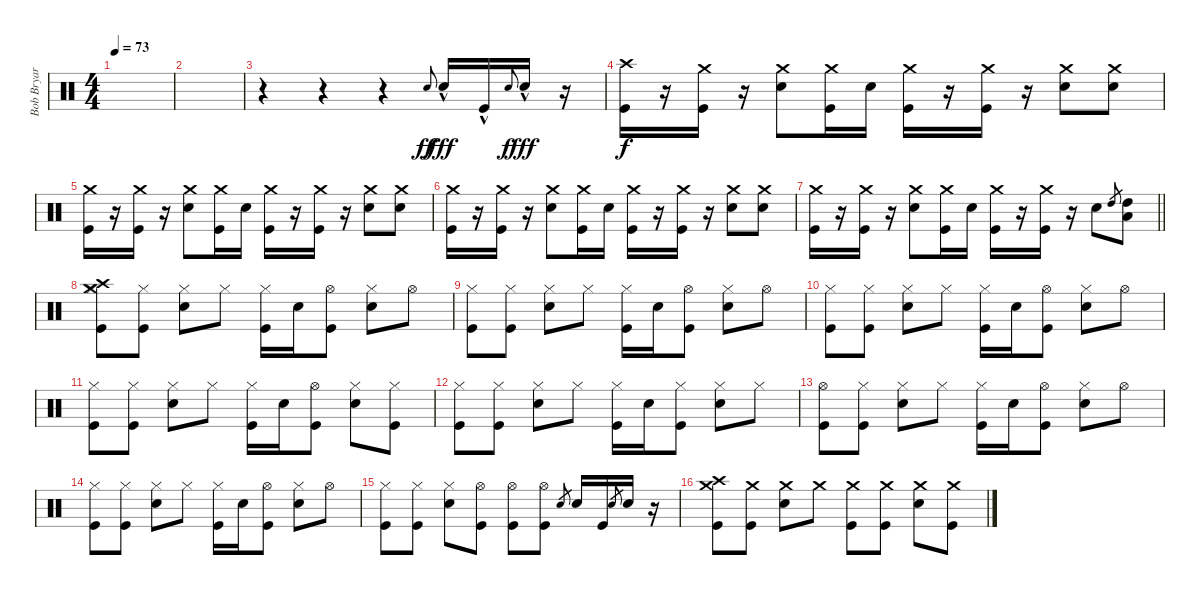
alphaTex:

\track ("Bob Bryar [Drums]" "Bob Bryar ") {instrument percussion}
\staff {score}
\articulation defaults
\ts (4 4)
\tempo 73
\clef neutral
\ks c
|
|
r.4 r.4 r.4 "Snare (hit) 2".8{gr onbeat dy ff} "Snare (hit) 2"{hac}.16{dy fff} "Kick (hit)"{hac}.16 "Snare (hit) 2".8{gr onbeat dy f} "Snare (hit) 2"{hac}.16{dy fff} r.16 |
("Crash high (hit)" "Kick (hit)").16{dy f} r.16 ("Crash medium (hit)" "Kick (hit)").16 r.16 ("Crash medium (hit)" "Snare (hit) 2").8 ("Crash medium (hit)" "Kick (hit)").16 "Snare (hit) 2".16 ("Crash medium (hit)" "Kick (hit)").16 r.16 ("Crash medium (hit)" "Kick (hit)").16 r.16 ("Crash medium (hit)" "Snare (hit) 2").8 ("Crash medium (hit)" "Snare (hit) 2").8 |
("Crash medium (hit)" "Kick (hit)").16 r.16 ("Crash medium (hit)" "Kick (hit)").16 r.16 ("Crash medium (hit)" "Snare (hit) 2").8 ("Crash medium (hit)" "Kick (hit)").16 "Snare (hit) 2".16 ("Crash medium (hit)" "Kick (hit)").16 r.16 ("Crash medium (hit)" "Kick (hit)").16 r.16 ("Crash medium (hit)" "Snare (hit) 2").8 ("Crash medium (hit)" "Snare (hit) 2").8 |
("Crash medium (hit)" "Kick (hit)").16 r.16 ("Crash medium (hit)" "Kick (hit)").16 r.16 ("Crash medium (hit)" "Snare (hit) 2").8 ("Crash medium (hit)" "Kick (hit)").16 "Snare (hit) 2".16 ("Crash medium (hit)" "Kick (hit)").16 r.16 ("Crash medium (hit)" "Kick (hit)").16 r.16 ("Crash medium (hit)" "Snare (hit) 2").8 ("Crash medium (hit)" "Snare (hit) 2").8 |
\barLineRight lightlight
("Crash medium (hit)" "Kick (hit)").16 r.16 ("Crash medium (hit)" "Kick (hit)").16 r.16 ("Crash medium (hit)" "Snare (hit) 2").8 ("Crash medium (hit)" "Kick (hit)").16 "Snare (hit) 2".16 ("Crash medium (hit)" "Kick (hit)").16 r.16 ("Crash medium (hit)" "Kick (hit)").16 r.16 "Snare (hit) 2".8 "High Tom (hit)".8{gr} ("High Tom (hit)" "Low Tom (hit)").8 |
("Crash high (hit)" "Crash medium (hit)" "Hi-Hat (closed)" "Kick (hit)").8 ("Hi-Hat (closed)" "Kick (hit)").8 ("Hi-Hat (closed)" "Snare (hit) 2").8 "Hi-Hat (closed)".8 ("Hi-Hat (closed)" "Kick (hit)").16 "Snare (hit) 2".16 ("Hi-Hat (open)" "Kick (hit)").8 ("Hi-Hat (closed)" "Snare (hit) 2").8 "Hi-Hat (open)".8 |
("Hi-Hat (closed)" "Kick (hit)").8 ("Hi-Hat (closed)" "Kick (hit)").8 ("Hi-Hat (closed)" "Snare (hit) 2").8 "Hi-Hat (closed)".8 ("Hi-Hat (closed)" "Kick (hit)").16 "Snare (hit) 2".16 ("Hi-Hat (open)" "Kick (hit)").8 ("Hi-Hat (closed)" "Snare (hit) 2").8 "Hi-Hat (open)".8 |
("Hi-Hat (closed)" "Kick (hit)").8 ("Hi-Hat (closed)" "Kick (hit)").8 ("Hi-Hat (closed)" "Snare (hit) 2").8 "Hi-Hat (closed)".8 ("Hi-Hat (closed)" "Kick (hit)").16 "Snare (hit) 2".16 ("Hi-Hat (open)" "Kick (hit)").8 ("Hi-Hat (closed)" "Snare (hit) 2").8 "Hi-Hat (open)".8 |
("Hi-Hat (closed)" "Kick (hit)").8 ("Hi-Hat (closed)" "Kick (hit)").8 ("Hi-Hat (closed)" "Snare (hit) 2").8 "Hi-Hat (closed)".8 ("Hi-Hat (closed)" "Kick (hit)").16 "Snare (hit) 2".16 ("Hi-Hat (open)" "Kick (hit)").8 ("Hi-Hat (closed)" "Snare (hit) 2").8 ("Hi-Hat (closed)" "Kick (hit)").8 |
("Hi-Hat (closed)" "Kick (hit)").8 ("Hi-Hat (closed)" "Kick (hit)").8 ("Hi-Hat (closed)" "Snare (hit) 2").8 "Hi-Hat (closed)".8 ("Hi-Hat (closed)" "Kick (hit)").16 "Snare (hit) 2".16 ("Hi-Hat (closed)" "Kick (hit)").8 ("Hi-Hat (closed)" "Snare (hit) 2").8 "Hi-Hat (closed)".8 |
("Hi-Hat (open)" "Kick (hit)").8 ("Hi-Hat (closed)" "Kick (hit)").8 ("Hi-Hat (closed)" "Snare (hit) 2").8 "Hi-Hat (closed)".8 ("Hi-Hat (closed)" "Kick (hit)").16 "Snare (hit) 2".16 ("Hi-Hat (open)" "Kick (hit)").8 ("Hi-Hat (closed)" "Snare (hit) 2").8 "Hi-Hat (open)".8 |
("Hi-Hat (closed)" "Kick (hit)").8 ("Hi-Hat (closed)" "Kick (hit)").8 ("Hi-Hat (closed)" "Snare (hit) 2").8 "Hi-Hat (closed)".8 ("Hi-Hat (closed)" "Kick (hit)").16 "Snare (hit) 2".16 ("Hi-Hat (open)" "Kick (hit)").8 ("Hi-Hat (closed)" "Snare (hit) 2").8 "Hi-Hat (open)".8 |
("Hi-Hat (closed)" "Kick (hit)").8 ("Hi-Hat (closed)" "Kick (hit)").8 ("Hi-Hat (closed)" "Snare (hit) 2").8 ("Hi-Hat (open)" "Kick (hit)").8 ("Hi-Hat (open)" "Kick (hit)").8 ("Hi-Hat (open)" "Kick (hit)").8 "Snare (hit) 2".8{gr} "Snare (hit) 2".16 "Kick (hit)".16 "Snare (hit) 2".8{gr} "Snare (hit) 2".16 r.16 |
("Crash medium (hit)" "Crash high (hit)" "Kick (hit)").8 ("Crash medium (hit)" "Kick (hit)").8 ("Crash medium (hit)" "Snare (hit) 2").8 "Crash medium (hit)".8 ("Crash medium (hit)" "Kick (hit)").8 ("Crash medium (hit)" "Kick (hit)").8 ("Crash medium (hit)" "Snare (hit) 2").8 ("Crash medium (hit)" "Kick (hit)").8
